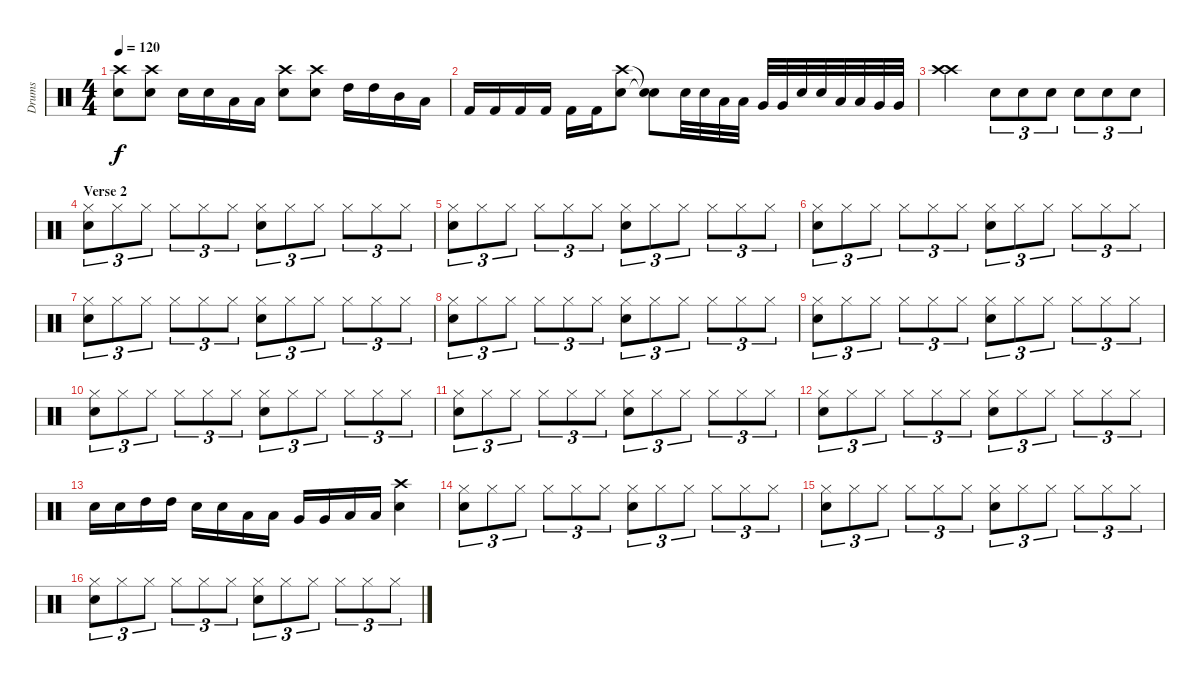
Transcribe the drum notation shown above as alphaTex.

\track ("Drums" "Drums") {instrument percussion}
\staff {score}
\articulation defaults
\ts (4 4)
\tempo 120
\clef neutral
\ks c
("Crash high (hit)" "Electric Snare (hit)").8{dy f} ("Crash high (hit)" "Electric Snare (hit)").8 "Electric Snare (hit)".16 "Electric Snare (hit)".16 "Low Tom (hit)".16 "Low Tom (hit)".16 ("Crash high (hit)" "Electric Snare (hit)").8 ("Crash high (hit)" "Electric Snare (hit)").8 "High Tom (hit)".16 "High Tom (hit)".16 "Mid Tom (hit)".16 "Low Tom (hit)".16 |
"Kick (hit) 2".16 "Kick (hit) 2".16 "Kick (hit) 2".16 "Kick (hit) 2".16 "Kick (hit) 2".16 "Kick (hit) 2".16 ("Crash high (hit)" "Electric Snare (hit)").8 ("Snare (hit)"{t} "Snare (hit)"{t}).8 "Electric Snare (hit)".32 "Electric Snare (hit)".32 "Low Tom (hit)".32 "Low Tom (hit)".32 "Very Low Tom (hit)".32 "Very Low Tom (hit)".32 "Electric Snare (hit)".32 "Electric Snare (hit)".32 "Low Tom (hit)".32 "Low Tom (hit)".32 "Very Low Tom (hit)".32 "Very Low Tom (hit)".32 |
("Crash high (hit)" "Crash high (hit)").2 "Electric Snare (hit)".8{tu (3 2)} "Electric Snare (hit)".8{tu (3 2)} "Electric Snare (hit)".8{tu (3 2)} "Electric Snare (hit)".8{tu (3 2)} "Electric Snare (hit)".8{tu (3 2)} "Electric Snare (hit)".8{tu (3 2)} |
\section ("" "Verse 2")
("Hi-Hat (closed)" "Electric Snare (hit)").8{tu (3 2)} "Hi-Hat (closed)".8{tu (3 2)} "Hi-Hat (closed)".8{tu (3 2)} "Hi-Hat (closed)".8{tu (3 2)} "Hi-Hat (closed)".8{tu (3 2)} "Hi-Hat (closed)".8{tu (3 2)} ("Hi-Hat (closed)" "Electric Snare (hit)").8{tu (3 2)} "Hi-Hat (closed)".8{tu (3 2)} "Hi-Hat (closed)".8{tu (3 2)} "Hi-Hat (closed)".8{tu (3 2)} "Hi-Hat (closed)".8{tu (3 2)} "Hi-Hat (closed)".8{tu (3 2)} |
("Hi-Hat (closed)" "Electric Snare (hit)").8{tu (3 2)} "Hi-Hat (closed)".8{tu (3 2)} "Hi-Hat (closed)".8{tu (3 2)} "Hi-Hat (closed)".8{tu (3 2)} "Hi-Hat (closed)".8{tu (3 2)} "Hi-Hat (closed)".8{tu (3 2)} ("Hi-Hat (closed)" "Electric Snare (hit)").8{tu (3 2)} "Hi-Hat (closed)".8{tu (3 2)} "Hi-Hat (closed)".8{tu (3 2)} "Hi-Hat (closed)".8{tu (3 2)} "Hi-Hat (closed)".8{tu (3 2)} "Hi-Hat (closed)".8{tu (3 2)} |
("Hi-Hat (closed)" "Electric Snare (hit)").8{tu (3 2)} "Hi-Hat (closed)".8{tu (3 2)} "Hi-Hat (closed)".8{tu (3 2)} "Hi-Hat (closed)".8{tu (3 2)} "Hi-Hat (closed)".8{tu (3 2)} "Hi-Hat (closed)".8{tu (3 2)} ("Hi-Hat (closed)" "Electric Snare (hit)").8{tu (3 2)} "Hi-Hat (closed)".8{tu (3 2)} "Hi-Hat (closed)".8{tu (3 2)} "Hi-Hat (closed)".8{tu (3 2)} "Hi-Hat (closed)".8{tu (3 2)} "Hi-Hat (closed)".8{tu (3 2)} |
("Hi-Hat (closed)" "Electric Snare (hit)").8{tu (3 2)} "Hi-Hat (closed)".8{tu (3 2)} "Hi-Hat (closed)".8{tu (3 2)} "Hi-Hat (closed)".8{tu (3 2)} "Hi-Hat (closed)".8{tu (3 2)} "Hi-Hat (closed)".8{tu (3 2)} ("Hi-Hat (closed)" "Electric Snare (hit)").8{tu (3 2)} "Hi-Hat (closed)".8{tu (3 2)} "Hi-Hat (closed)".8{tu (3 2)} "Hi-Hat (closed)".8{tu (3 2)} "Hi-Hat (closed)".8{tu (3 2)} "Hi-Hat (closed)".8{tu (3 2)} |
("Hi-Hat (closed)" "Electric Snare (hit)").8{tu (3 2)} "Hi-Hat (closed)".8{tu (3 2)} "Hi-Hat (closed)".8{tu (3 2)} "Hi-Hat (closed)".8{tu (3 2)} "Hi-Hat (closed)".8{tu (3 2)} "Hi-Hat (closed)".8{tu (3 2)} ("Hi-Hat (closed)" "Electric Snare (hit)").8{tu (3 2)} "Hi-Hat (closed)".8{tu (3 2)} "Hi-Hat (closed)".8{tu (3 2)} "Hi-Hat (closed)".8{tu (3 2)} "Hi-Hat (closed)".8{tu (3 2)} "Hi-Hat (closed)".8{tu (3 2)} |
("Hi-Hat (closed)" "Electric Snare (hit)").8{tu (3 2)} "Hi-Hat (closed)".8{tu (3 2)} "Hi-Hat (closed)".8{tu (3 2)} "Hi-Hat (closed)".8{tu (3 2)} "Hi-Hat (closed)".8{tu (3 2)} "Hi-Hat (closed)".8{tu (3 2)} ("Hi-Hat (closed)" "Electric Snare (hit)").8{tu (3 2)} "Hi-Hat (closed)".8{tu (3 2)} "Hi-Hat (closed)".8{tu (3 2)} "Hi-Hat (closed)".8{tu (3 2)} "Hi-Hat (closed)".8{tu (3 2)} "Hi-Hat (closed)".8{tu (3 2)} |
("Hi-Hat (closed)" "Electric Snare (hit)").8{tu (3 2)} "Hi-Hat (closed)".8{tu (3 2)} "Hi-Hat (closed)".8{tu (3 2)} "Hi-Hat (closed)".8{tu (3 2)} "Hi-Hat (closed)".8{tu (3 2)} "Hi-Hat (closed)".8{tu (3 2)} ("Hi-Hat (closed)" "Electric Snare (hit)").8{tu (3 2)} "Hi-Hat (closed)".8{tu (3 2)} "Hi-Hat (closed)".8{tu (3 2)} "Hi-Hat (closed)".8{tu (3 2)} "Hi-Hat (closed)".8{tu (3 2)} "Hi-Hat (closed)".8{tu (3 2)} |
("Hi-Hat (closed)" "Electric Snare (hit)").8{tu (3 2)} "Hi-Hat (closed)".8{tu (3 2)} "Hi-Hat (closed)".8{tu (3 2)} "Hi-Hat (closed)".8{tu (3 2)} "Hi-Hat (closed)".8{tu (3 2)} "Hi-Hat (closed)".8{tu (3 2)} ("Hi-Hat (closed)" "Electric Snare (hit)").8{tu (3 2)} "Hi-Hat (closed)".8{tu (3 2)} "Hi-Hat (closed)".8{tu (3 2)} "Hi-Hat (closed)".8{tu (3 2)} "Hi-Hat (closed)".8{tu (3 2)} "Hi-Hat (closed)".8{tu (3 2)} |
("Hi-Hat (closed)" "Electric Snare (hit)").8{tu (3 2)} "Hi-Hat (closed)".8{tu (3 2)} "Hi-Hat (closed)".8{tu (3 2)} "Hi-Hat (closed)".8{tu (3 2)} "Hi-Hat (closed)".8{tu (3 2)} "Hi-Hat (closed)".8{tu (3 2)} ("Hi-Hat (closed)" "Electric Snare (hit)").8{tu (3 2)} "Hi-Hat (closed)".8{tu (3 2)} "Hi-Hat (closed)".8{tu (3 2)} "Hi-Hat (closed)".8{tu (3 2)} "Hi-Hat (closed)".8{tu (3 2)} "Hi-Hat (closed)".8{tu (3 2)} |
"Electric Snare (hit)".16 "Electric Snare (hit)".16 "High Tom (hit)".16 "High Tom (hit)".16 "Electric Snare (hit)".16 "Electric Snare (hit)".16 "Low Tom (hit)".16 "Low Tom (hit)".16 "Very Low Tom (hit)".16 "Very Low Tom (hit)".16 "Low Floor Tom (hit)".16 "Low Floor Tom (hit)".16 ("Crash high (hit)" "Electric Snare (hit)").4 |
("Hi-Hat (closed)" "Electric Snare (hit)").8{tu (3 2)} "Hi-Hat (closed)".8{tu (3 2)} "Hi-Hat (closed)".8{tu (3 2)} "Hi-Hat (closed)".8{tu (3 2)} "Hi-Hat (closed)".8{tu (3 2)} "Hi-Hat (closed)".8{tu (3 2)} ("Hi-Hat (closed)" "Electric Snare (hit)").8{tu (3 2)} "Hi-Hat (closed)".8{tu (3 2)} "Hi-Hat (closed)".8{tu (3 2)} "Hi-Hat (closed)".8{tu (3 2)} "Hi-Hat (closed)".8{tu (3 2)} "Hi-Hat (closed)".8{tu (3 2)} |
("Hi-Hat (closed)" "Electric Snare (hit)").8{tu (3 2)} "Hi-Hat (closed)".8{tu (3 2)} "Hi-Hat (closed)".8{tu (3 2)} "Hi-Hat (closed)".8{tu (3 2)} "Hi-Hat (closed)".8{tu (3 2)} "Hi-Hat (closed)".8{tu (3 2)} ("Hi-Hat (closed)" "Electric Snare (hit)").8{tu (3 2)} "Hi-Hat (closed)".8{tu (3 2)} "Hi-Hat (closed)".8{tu (3 2)} "Hi-Hat (closed)".8{tu (3 2)} "Hi-Hat (closed)".8{tu (3 2)} "Hi-Hat (closed)".8{tu (3 2)} |
("Hi-Hat (closed)" "Electric Snare (hit)").8{tu (3 2)} "Hi-Hat (closed)".8{tu (3 2)} "Hi-Hat (closed)".8{tu (3 2)} "Hi-Hat (closed)".8{tu (3 2)} "Hi-Hat (closed)".8{tu (3 2)} "Hi-Hat (closed)".8{tu (3 2)} ("Hi-Hat (closed)" "Electric Snare (hit)").8{tu (3 2)} "Hi-Hat (closed)".8{tu (3 2)} "Hi-Hat (closed)".8{tu (3 2)} "Hi-Hat (closed)".8{tu (3 2)} "Hi-Hat (closed)".8{tu (3 2)} "Hi-Hat (closed)".8{tu (3 2)}
